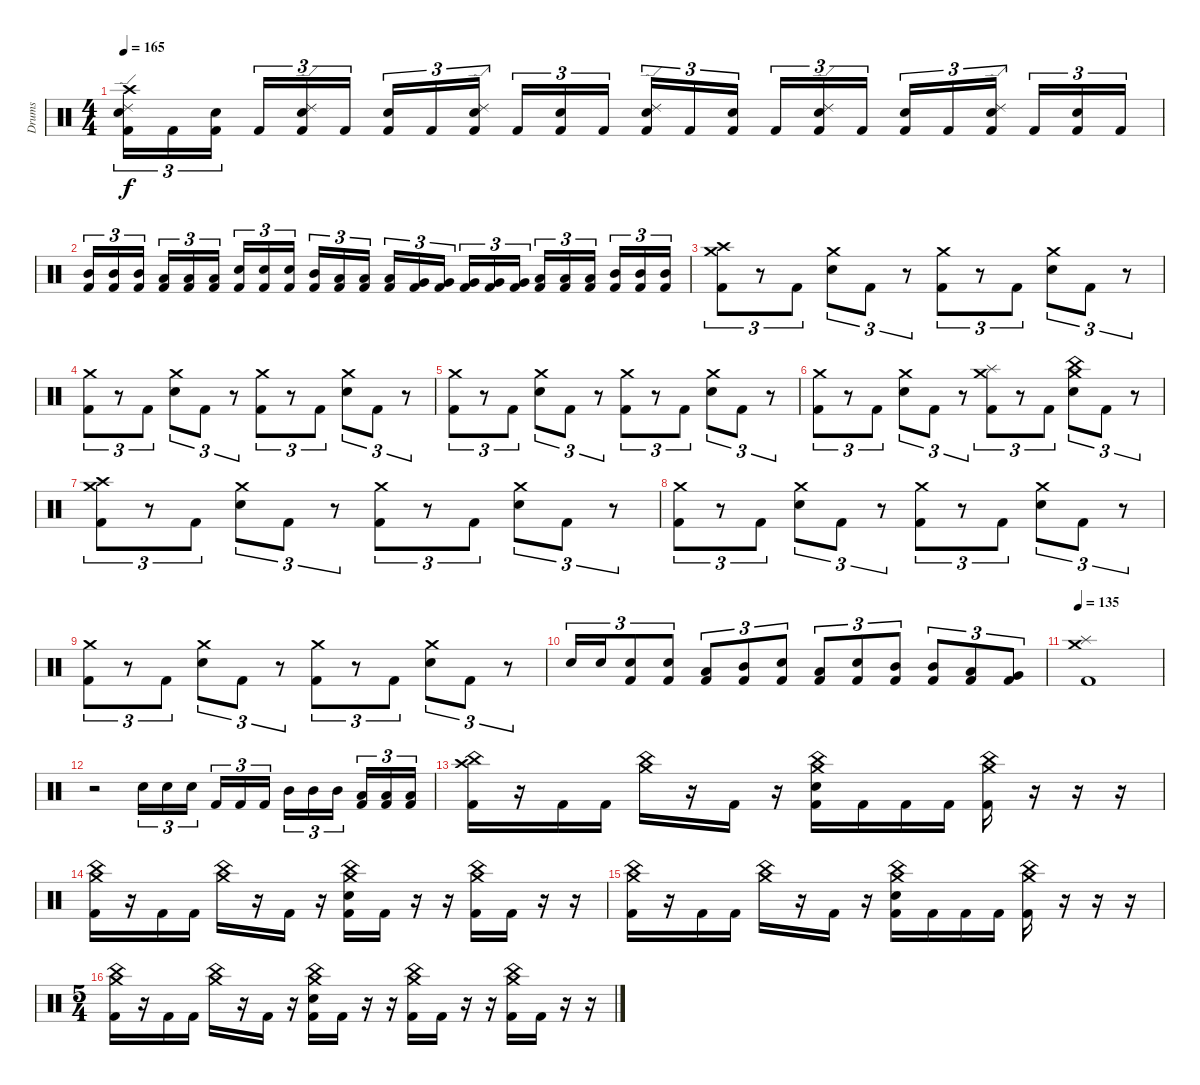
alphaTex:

\track ("Drums" "Drums") {instrument percussion}
\staff {score}
\articulation defaults
\ts (4 4)
\tempo 165
\clef neutral
\ks c
("Crash high (hit)" "Ride (edge) 2" "Electric Snare (hit)" "Kick (hit) 2").16{tu (3 2) dy f} "Kick (hit) 2".16{tu (3 2)} ("Electric Snare (hit)" "Kick (hit) 2").16{tu (3 2) beam splitsecondary} "Kick (hit) 2".16{tu (3 2)} ("Ride (edge) 2" "Electric Snare (hit)" "Kick (hit) 2").16{tu (3 2)} "Kick (hit) 2".16{tu (3 2)} ("Electric Snare (hit)" "Kick (hit) 2").16{tu (3 2)} "Kick (hit) 2".16{tu (3 2)} ("Ride (edge) 2" "Electric Snare (hit)" "Kick (hit) 2").16{tu (3 2) beam splitsecondary} "Kick (hit) 2".16{tu (3 2)} ("Electric Snare (hit)" "Kick (hit) 2").16{tu (3 2)} "Kick (hit) 2".16{tu (3 2)} ("Ride (edge) 2" "Electric Snare (hit)" "Kick (hit) 2").16{tu (3 2)} "Kick (hit) 2".16{tu (3 2)} ("Electric Snare (hit)" "Kick (hit) 2").16{tu (3 2) beam splitsecondary} "Kick (hit) 2".16{tu (3 2)} ("Ride (edge) 2" "Electric Snare (hit)" "Kick (hit) 2").16{tu (3 2)} "Kick (hit) 2".16{tu (3 2)} ("Electric Snare (hit)" "Kick (hit) 2").16{tu (3 2)} "Kick (hit) 2".16{tu (3 2)} ("Ride (edge) 2" "Electric Snare (hit)" "Kick (hit) 2").16{tu (3 2) beam splitsecondary} "Kick (hit) 2".16{tu (3 2)} ("Electric Snare (hit)" "Kick (hit) 2").16{tu (3 2)} "Kick (hit) 2".16{tu (3 2)} |
("Mid Tom (hit)" "Kick (hit) 2").16{tu (3 2)} ("Mid Tom (hit)" "Kick (hit) 2").16{tu (3 2)} ("Mid Tom (hit)" "Kick (hit) 2").16{tu (3 2) beam splitsecondary} ("Low Tom (hit)" "Kick (hit) 2").16{tu (3 2)} ("Low Tom (hit)" "Kick (hit) 2").16{tu (3 2)} ("Low Tom (hit)" "Kick (hit) 2").16{tu (3 2)} ("Electric Snare (hit)" "Kick (hit) 2").16{tu (3 2)} ("Electric Snare (hit)" "Kick (hit) 2").16{tu (3 2)} ("Electric Snare (hit)" "Kick (hit) 2").16{tu (3 2) beam splitsecondary} ("Mid Tom (hit)" "Kick (hit) 2").16{tu (3 2)} ("Low Tom (hit)" "Kick (hit) 2").16{tu (3 2)} ("Low Tom (hit)" "Kick (hit) 2").16{tu (3 2)} ("Low Tom (hit)" "Kick (hit) 2").16{tu (3 2)} ("Very Low Tom (hit)" "Kick (hit) 2").16{tu (3 2)} ("Very Low Tom (hit)" "Kick (hit) 2").16{tu (3 2) beam splitsecondary} ("Very Low Tom (hit)" "Kick (hit) 2").16{tu (3 2)} ("Very Low Tom (hit)" "Kick (hit) 2").16{tu (3 2)} ("Very Low Tom (hit)" "Kick (hit) 2").16{tu (3 2)} ("Low Tom (hit)" "Kick (hit) 2").16{tu (3 2)} ("Low Tom (hit)" "Kick (hit) 2").16{tu (3 2)} ("Low Tom (hit)" "Kick (hit) 2").16{tu (3 2) beam splitsecondary} ("Mid Tom (hit)" "Kick (hit) 2").16{tu (3 2)} ("Mid Tom (hit)" "Kick (hit) 2").16{tu (3 2)} ("Mid Tom (hit)" "Kick (hit) 2").16{tu (3 2)} |
("Crash high (hit)" "Crash medium (hit)" "Kick (hit) 2").8{tu (3 2)} r.8{tu (3 2)} "Kick (hit) 2".8{tu (3 2)} ("Crash medium (hit)" "Electric Snare (hit)").8{tu (3 2)} "Kick (hit) 2".8{tu (3 2)} r.8{tu (3 2)} ("Crash medium (hit)" "Kick (hit) 2").8{tu (3 2)} r.8{tu (3 2)} "Kick (hit) 2".8{tu (3 2)} ("Crash medium (hit)" "Electric Snare (hit)").8{tu (3 2)} "Kick (hit) 2".8{tu (3 2)} r.8{tu (3 2)} |
("Crash medium (hit)" "Kick (hit) 2").8{tu (3 2)} r.8{tu (3 2)} "Kick (hit) 2".8{tu (3 2)} ("Crash medium (hit)" "Electric Snare (hit)").8{tu (3 2)} "Kick (hit) 2".8{tu (3 2)} r.8{tu (3 2)} ("Crash medium (hit)" "Kick (hit) 2").8{tu (3 2)} r.8{tu (3 2)} "Kick (hit) 2".8{tu (3 2)} ("Crash medium (hit)" "Electric Snare (hit)").8{tu (3 2)} "Kick (hit) 2".8{tu (3 2)} r.8{tu (3 2)} |
("Crash medium (hit)" "Kick (hit) 2").8{tu (3 2)} r.8{tu (3 2)} "Kick (hit) 2".8{tu (3 2)} ("Crash medium (hit)" "Electric Snare (hit)").8{tu (3 2)} "Kick (hit) 2".8{tu (3 2)} r.8{tu (3 2)} ("Crash medium (hit)" "Kick (hit) 2").8{tu (3 2)} r.8{tu (3 2)} "Kick (hit) 2".8{tu (3 2)} ("Crash medium (hit)" "Electric Snare (hit)").8{tu (3 2)} "Kick (hit) 2".8{tu (3 2)} r.8{tu (3 2)} |
("Crash medium (hit)" "Kick (hit) 2").8{tu (3 2)} r.8{tu (3 2)} "Kick (hit) 2".8{tu (3 2)} ("Crash medium (hit)" "Electric Snare (hit)").8{tu (3 2)} "Kick (hit) 2".8{tu (3 2)} r.8{tu (3 2)} ("Splash (hit)" "Crash medium (hit)" "Kick (hit) 2").8{tu (3 2)} r.8{tu (3 2)} "Kick (hit) 2".8{tu (3 2)} ("China (hit)" "Crash medium (hit)" "Electric Snare (hit)").8{tu (3 2)} "Kick (hit) 2".8{tu (3 2)} r.8{tu (3 2)} |
("Crash high (hit)" "Crash medium (hit)" "Kick (hit) 2").8{tu (3 2)} r.8{tu (3 2)} "Kick (hit) 2".8{tu (3 2)} ("Crash medium (hit)" "Electric Snare (hit)").8{tu (3 2)} "Kick (hit) 2".8{tu (3 2)} r.8{tu (3 2)} ("Crash medium (hit)" "Kick (hit) 2").8{tu (3 2)} r.8{tu (3 2)} "Kick (hit) 2".8{tu (3 2)} ("Crash medium (hit)" "Electric Snare (hit)").8{tu (3 2)} "Kick (hit) 2".8{tu (3 2)} r.8{tu (3 2)} |
("Crash medium (hit)" "Kick (hit) 2").8{tu (3 2)} r.8{tu (3 2)} "Kick (hit) 2".8{tu (3 2)} ("Crash medium (hit)" "Electric Snare (hit)").8{tu (3 2)} "Kick (hit) 2".8{tu (3 2)} r.8{tu (3 2)} ("Crash medium (hit)" "Kick (hit) 2").8{tu (3 2)} r.8{tu (3 2)} "Kick (hit) 2".8{tu (3 2)} ("Crash medium (hit)" "Electric Snare (hit)").8{tu (3 2)} "Kick (hit) 2".8{tu (3 2)} r.8{tu (3 2)} |
("Crash medium (hit)" "Kick (hit) 2").8{tu (3 2)} r.8{tu (3 2)} "Kick (hit) 2".8{tu (3 2)} ("Crash medium (hit)" "Electric Snare (hit)").8{tu (3 2)} "Kick (hit) 2".8{tu (3 2)} r.8{tu (3 2)} ("Crash medium (hit)" "Kick (hit) 2").8{tu (3 2)} r.8{tu (3 2)} "Kick (hit) 2".8{tu (3 2)} ("Crash medium (hit)" "Electric Snare (hit)").8{tu (3 2)} "Kick (hit) 2".8{tu (3 2)} r.8{tu (3 2)} |
"Electric Snare (hit)".16{tu (3 2)} "Electric Snare (hit)".16{tu (3 2)} ("Electric Snare (hit)" "Kick (hit) 2").8{tu (3 2)} ("Electric Snare (hit)" "Kick (hit) 2").8{tu (3 2)} ("Low Tom (hit)" "Kick (hit) 2").8{tu (3 2)} ("Mid Tom (hit)" "Kick (hit) 2").8{tu (3 2)} ("Electric Snare (hit)" "Kick (hit) 2").8{tu (3 2)} ("Low Tom (hit)" "Kick (hit) 2").8{tu (3 2)} ("Electric Snare (hit)" "Kick (hit) 2").8{tu (3 2)} ("Mid Tom (hit)" "Kick (hit) 2").8{tu (3 2)} ("Mid Tom (hit)" "Kick (hit) 2").8{tu (3 2)} ("Low Tom (hit)" "Kick (hit) 2").8{tu (3 2)} ("Very Low Tom (hit)" "Kick (hit) 2").8{tu (3 2)} |
\tempo 135
("Splash (hit)" "Crash medium (hit)" "Kick (hit) 2").1 |
r.2 "Electric Snare (hit)".16{tu (3 2)} "Electric Snare (hit)".16{tu (3 2)} "Electric Snare (hit)".16{tu (3 2) beam splitsecondary} "Kick (hit) 2".16{tu (3 2)} "Kick (hit) 2".16{tu (3 2)} "Kick (hit) 2".16{tu (3 2)} "Mid Tom (hit)".16{tu (3 2)} "Mid Tom (hit)".16{tu (3 2)} "Mid Tom (hit)".16{tu (3 2) beam splitsecondary} ("Low Tom (hit)" "Kick (hit) 2").16{tu (3 2)} ("Low Tom (hit)" "Kick (hit) 2").16{tu (3 2)} ("Low Tom (hit)" "Kick (hit) 2").16{tu (3 2)} |
("Crash high (hit)" "China (hit)" "Kick (hit) 2").16 r.16 "Kick (hit) 2".16 "Kick (hit) 2".16 ("Crash medium (hit)" "China (hit)").16 r.16 "Kick (hit) 2".16 r.16 ("Crash medium (hit)" "China (hit)" "Electric Snare (hit)" "Kick (hit) 2").16 "Kick (hit) 2".16 "Kick (hit) 2".16 "Kick (hit) 2".16 ("Crash medium (hit)" "China (hit)" "Kick (hit) 2").16 r.16 r.16 r.16 |
("Crash medium (hit)" "China (hit)" "Kick (hit) 2").16 r.16 "Kick (hit) 2".16 "Kick (hit) 2".16 ("Crash medium (hit)" "China (hit)").16 r.16 "Kick (hit) 2".16 r.16 ("Crash medium (hit)" "China (hit)" "Electric Snare (hit)" "Kick (hit) 2").16 "Kick (hit) 2".16 r.16 r.16 ("Crash medium (hit)" "China (hit)" "Kick (hit) 2").16 "Kick (hit) 2".16 r.16 r.16 |
("Crash medium (hit)" "China (hit)" "Kick (hit) 2").16 r.16 "Kick (hit) 2".16 "Kick (hit) 2".16 ("Crash medium (hit)" "China (hit)").16 r.16 "Kick (hit) 2".16 r.16 ("Crash medium (hit)" "China (hit)" "Electric Snare (hit)" "Kick (hit) 2").16 "Kick (hit) 2".16 "Kick (hit) 2".16 "Kick (hit) 2".16 ("Crash medium (hit)" "China (hit)" "Kick (hit) 2").16 r.16 r.16 r.16 |
\ts (5 4)
("Crash medium (hit)" "China (hit)" "Kick (hit) 2").16 r.16 "Kick (hit) 2".16 "Kick (hit) 2".16 ("Crash medium (hit)" "China (hit)").16 r.16 "Kick (hit) 2".16 r.16 ("Crash medium (hit)" "China (hit)" "Electric Snare (hit)" "Kick (hit) 2").16 "Kick (hit) 2".16 r.16 r.16 ("Crash medium (hit)" "China (hit)" "Kick (hit) 2").16 "Kick (hit) 2".16 r.16 r.16 ("Crash medium (hit)" "China (hit)" "Kick (hit) 2").16 "Kick (hit) 2".16 r.16 r.16
